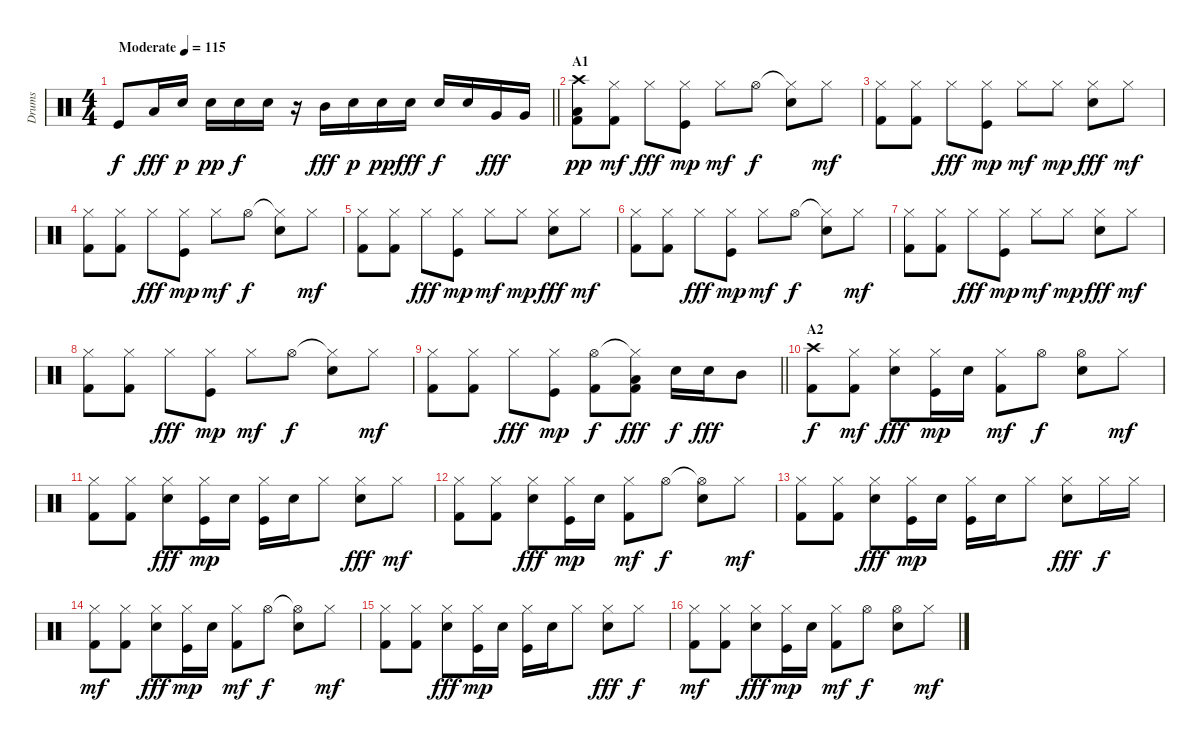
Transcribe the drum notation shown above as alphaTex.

\track ("Drums" "Drums") {instrument percussion}
\staff {score}
\articulation defaults
\ts (4 4)
\tempo (115 "Moderate")
\clef neutral
\barLineRight lightlight
\ks c "Kick (hit)".8{dy f} "Low Tom (hit)".16{dy fff} "Electric Snare (hit)".16{dy p} "Electric Snare (hit)".16{dy pp} "Electric Snare (hit)".16{dy f} "Electric Snare (hit)".16
r.16 "Mid Tom (hit)".16{dy fff} "Electric Snare (hit)".16{dy p} "Electric Snare (hit)".16{dy pp} "Electric Snare (hit)".16{dy fff} "Electric Snare (hit)".16{dy f} "Electric Snare (hit)".16 "Very Low Tom (hit)".16{dy fff} "Very Low Tom (hit)".16 |
\section ("" "A1")
("Crash high (hit)" "Low Floor Tom (hit)" "Kick (hit) 2").8{dy pp} ("Hi-Hat (closed)" "Kick (hit) 2").8{dy mf} "Hi-Hat (closed)".8{dy fff} ("Hi-Hat (closed)" "Kick (hit)").8{dy mp} "Hi-Hat (closed)".8{dy mf} "Hi-Hat (open)".8{dy f} ("Hi-Hat (closed)"{t} "Electric Snare (hit)").8 "Hi-Hat (closed)".8{dy mf} |
("Hi-Hat (closed)" "Kick (hit) 2").8 ("Hi-Hat (closed)" "Kick (hit) 2").8 "Hi-Hat (closed)".8{dy fff} ("Hi-Hat (closed)" "Kick (hit)").8{dy mp} "Hi-Hat (closed)".8{dy mf} "Hi-Hat (closed)".8{dy mp} ("Hi-Hat (closed)" "Electric Snare (hit)").8{dy fff} "Hi-Hat (closed)".8{dy mf} |
("Hi-Hat (closed)" "Kick (hit) 2").8 ("Hi-Hat (closed)" "Kick (hit) 2").8 "Hi-Hat (closed)".8{dy fff} ("Hi-Hat (closed)" "Kick (hit)").8{dy mp} "Hi-Hat (closed)".8{dy mf} "Hi-Hat (open)".8{dy f} ("Hi-Hat (closed)"{t} "Electric Snare (hit)").8 "Hi-Hat (closed)".8{dy mf} |
("Hi-Hat (closed)" "Kick (hit) 2").8 ("Hi-Hat (closed)" "Kick (hit) 2").8 "Hi-Hat (closed)".8{dy fff} ("Hi-Hat (closed)" "Kick (hit)").8{dy mp} "Hi-Hat (closed)".8{dy mf} "Hi-Hat (closed)".8{dy mp} ("Hi-Hat (closed)" "Electric Snare (hit)").8{dy fff} "Hi-Hat (closed)".8{dy mf} |
("Hi-Hat (closed)" "Kick (hit) 2").8 ("Hi-Hat (closed)" "Kick (hit) 2").8 "Hi-Hat (closed)".8{dy fff} ("Hi-Hat (closed)" "Kick (hit)").8{dy mp} "Hi-Hat (closed)".8{dy mf} "Hi-Hat (open)".8{dy f} ("Hi-Hat (closed)"{t} "Electric Snare (hit)").8 "Hi-Hat (closed)".8{dy mf} |
("Hi-Hat (closed)" "Kick (hit) 2").8 ("Hi-Hat (closed)" "Kick (hit) 2").8 "Hi-Hat (closed)".8{dy fff} ("Hi-Hat (closed)" "Kick (hit)").8{dy mp} "Hi-Hat (closed)".8{dy mf} "Hi-Hat (closed)".8{dy mp} ("Hi-Hat (closed)" "Electric Snare (hit)").8{dy fff} "Hi-Hat (closed)".8{dy mf} |
("Hi-Hat (closed)" "Kick (hit) 2").8 ("Hi-Hat (closed)" "Kick (hit) 2").8 "Hi-Hat (closed)".8{dy fff} ("Hi-Hat (closed)" "Kick (hit)").8{dy mp} "Hi-Hat (closed)".8{dy mf} "Hi-Hat (open)".8{dy f} ("Hi-Hat (closed)"{t} "Electric Snare (hit)").8 "Hi-Hat (closed)".8{dy mf} |
\barLineRight lightlight
("Hi-Hat (closed)" "Kick (hit) 2").8 ("Hi-Hat (closed)" "Kick (hit) 2").8 "Hi-Hat (closed)".8{dy fff} ("Hi-Hat (closed)" "Kick (hit)").8{dy mp} ("Hi-Hat (open)" "Kick (hit) 2").8{dy f} ("Hi-Hat (closed)"{t} "Low Tom (hit)" "Kick (hit) 2").8{dy fff} "Electric Snare (hit)".16{dy f} "Electric Snare (hit)".16{dy fff} "Mid Tom (hit)".8 |
\section ("" "A2")
("Crash high (hit)" "Kick (hit) 2").8{dy f} ("Hi-Hat (closed)" "Kick (hit) 2").8{dy mf} ("Hi-Hat (closed)" "Electric Snare (hit)").8{dy fff} ("Hi-Hat (closed)" "Kick (hit)").16{dy mp} "Electric Snare (hit)".16 ("Hi-Hat (closed)" "Kick (hit) 2").8{dy mf} "Hi-Hat (open)".8{dy f} ("Hi-Hat (open)" "Electric Snare (hit)").8 "Hi-Hat (closed)".8{dy mf} |
("Hi-Hat (closed)" "Kick (hit) 2").8 ("Hi-Hat (closed)" "Kick (hit) 2").8 ("Hi-Hat (closed)" "Electric Snare (hit)").8{dy fff} ("Hi-Hat (closed)" "Kick (hit)").16{dy mp} "Electric Snare (hit)".16 ("Hi-Hat (closed)" "Kick (hit)").16 "Electric Snare (hit)".16 "Hi-Hat (closed)".8 ("Hi-Hat (closed)" "Electric Snare (hit)").8{dy fff} "Hi-Hat (closed)".8{dy mf} |
("Hi-Hat (closed)" "Kick (hit) 2").8 ("Hi-Hat (closed)" "Kick (hit) 2").8 ("Hi-Hat (closed)" "Electric Snare (hit)").8{dy fff} ("Hi-Hat (closed)" "Kick (hit)").16{dy mp} "Electric Snare (hit)".16 ("Hi-Hat (closed)" "Kick (hit) 2").8{dy mf} "Hi-Hat (open)".8{dy f} ("Hi-Hat (open)"{t} "Electric Snare (hit)").8 "Hi-Hat (closed)".8{dy mf} |
("Hi-Hat (closed)" "Kick (hit) 2").8 ("Hi-Hat (closed)" "Kick (hit) 2").8 ("Hi-Hat (closed)" "Electric Snare (hit)").8{dy fff} ("Hi-Hat (closed)" "Kick (hit)").16{dy mp} "Electric Snare (hit)".16 ("Hi-Hat (closed)" "Kick (hit)").16 "Electric Snare (hit)".16 "Hi-Hat (closed)".8 ("Hi-Hat (closed)" "Electric Snare (hit)").8{dy fff} "Hi-Hat (closed)".16{dy f} "Hi-Hat (closed)".16 |
("Hi-Hat (closed)" "Kick (hit) 2").8{dy mf} ("Hi-Hat (closed)" "Kick (hit) 2").8 ("Hi-Hat (closed)" "Electric Snare (hit)").8{dy fff} ("Hi-Hat (closed)" "Kick (hit)").16{dy mp} "Electric Snare (hit)".16 ("Hi-Hat (closed)" "Kick (hit) 2").8{dy mf} "Hi-Hat (open)".8{dy f} ("Hi-Hat (open)"{t} "Electric Snare (hit)").8 "Hi-Hat (closed)".8{dy mf} |
("Hi-Hat (closed)" "Kick (hit) 2").8 ("Hi-Hat (closed)" "Kick (hit) 2").8 ("Hi-Hat (closed)" "Electric Snare (hit)").8{dy fff} ("Hi-Hat (closed)" "Kick (hit)").16{dy mp} "Electric Snare (hit)".16 ("Hi-Hat (closed)" "Kick (hit)").16 "Electric Snare (hit)".16 "Hi-Hat (closed)".8 ("Hi-Hat (closed)" "Electric Snare (hit)").8{dy fff} "Hi-Hat (closed)".8{dy f} |
("Hi-Hat (closed)" "Kick (hit) 2").8{dy mf} ("Hi-Hat (closed)" "Kick (hit) 2").8 ("Hi-Hat (closed)" "Electric Snare (hit)").8{dy fff} ("Hi-Hat (closed)" "Kick (hit)").16{dy mp} "Electric Snare (hit)".16 ("Hi-Hat (closed)" "Kick (hit) 2").8{dy mf} "Hi-Hat (open)".8{dy f} ("Hi-Hat (open)" "Electric Snare (hit)").8 "Hi-Hat (closed)".8{dy mf}
